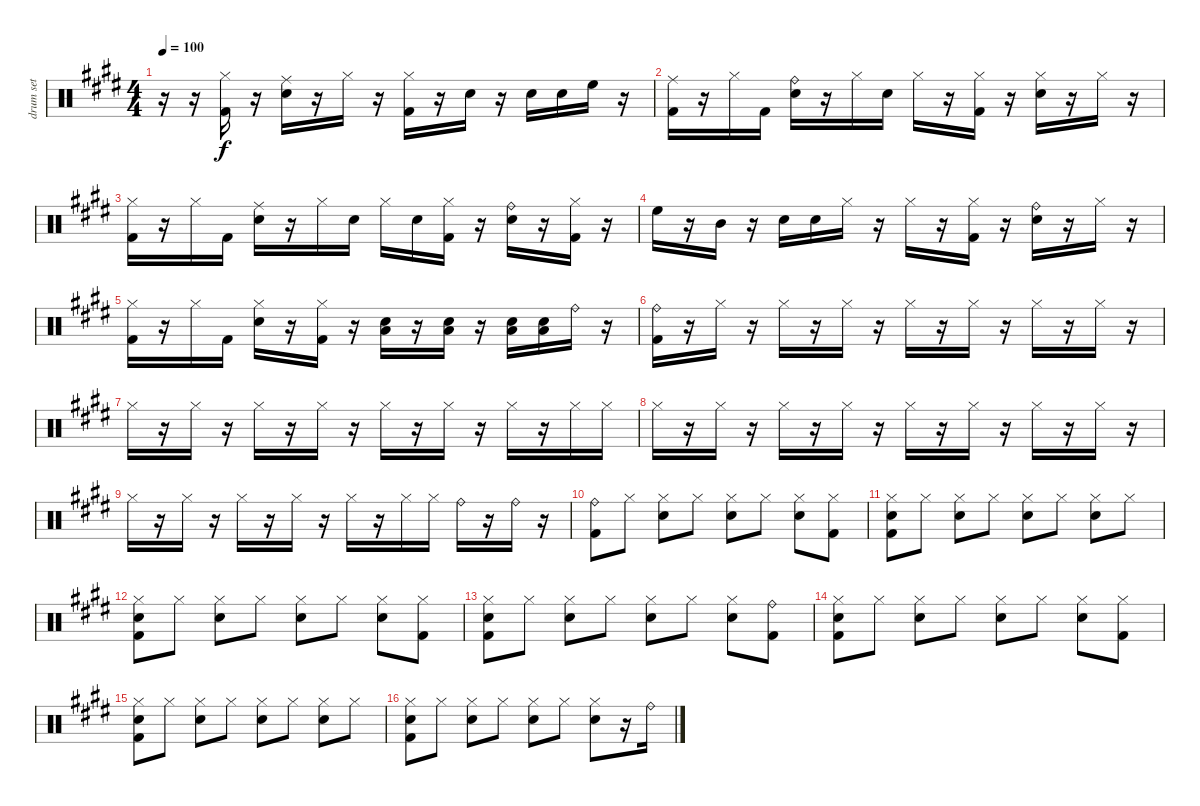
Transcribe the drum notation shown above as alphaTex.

\track ("drum set" "drum set") {instrument percussion}
\staff {score}
\articulation defaults
\ts (4 4)
\tempo 100
\clef neutral
\ks e
r.16{dy f} r.16 ("Hi-Hat (closed)" "Kick (hit) 2").16 r.16 ("Ride (middle)" "Snare (hit) 2").16 r.16 "Hi-Hat (closed)".16 r.16 ("Hi-Hat (closed)" "Kick (hit) 2").16 r.16 "Snare (hit) 2".16 r.16 "Snare (hit) 2".16 "Snare (hit) 2".16 "High Floor Tom (hit)".16 r.16 |
("Ride (middle)" "Kick (hit) 2").16 r.16 "Hi-Hat (closed)".16 "Kick (hit) 2".16 ("Ride (bell)" "Snare (hit) 2").16 r.16 "Hi-Hat (closed)".16 "Snare (hit) 2".16 "Hi-Hat (closed)".16 r.16 ("Hi-Hat (closed)" "Kick (hit) 2").16 r.16 ("Hi-Hat (closed)" "Snare (hit) 2").16 r.16 "Hi-Hat (closed)".16 r.16 |
("Hi-Hat (closed)" "Kick (hit) 2").16 r.16 "Hi-Hat (closed)".16 "Kick (hit) 2".16 ("Ride (middle)" "Snare (hit) 2").16 r.16 "Hi-Hat (closed)".16 "Snare (hit) 2".16 "Hi-Hat (closed)".16 "Snare (hit) 2".16 ("Hi-Hat (closed)" "Kick (hit) 2").16 r.16 ("Ride (bell)" "Snare (hit) 2").16 r.16 ("Hi-Hat (closed)" "Kick (hit) 2").16 r.16 |
"High Floor Tom (hit)".16 r.16 "Mid Tom (hit)".16 r.16 "Snare (hit) 2".16 "Snare (hit) 2".16 "Hi-Hat (closed)".16 r.16 "Hi-Hat (closed)".16 r.16 ("Hi-Hat (closed)" "Kick (hit) 2").16 r.16 ("Ride (bell)" "Snare (hit) 2").16 r.16 "Hi-Hat (closed)".16 r.16 |
("Hi-Hat (closed)" "Kick (hit) 2").16 r.16 "Hi-Hat (closed)".16 "Kick (hit) 2".16 ("Hi-Hat (closed)" "Snare (hit) 2").16 r.16 ("Hi-Hat (closed)" "Kick (hit) 2").16 r.16 ("Snare (hit) 2" "Low Tom (hit)").16 r.16 ("Snare (hit) 2" "Low Tom (hit)").16 r.16 ("Snare (hit) 2" "Low Tom (hit)").16 ("Snare (hit) 2" "Low Tom (hit)").16 "Ride (bell)".16 r.16 |
("Ride (bell)" "Kick (hit) 2").16 r.16 "Hi-Hat (closed)".16 r.16 "Hi-Hat (closed)".16 r.16 "Hi-Hat (closed)".16 r.16 "Hi-Hat (closed)".16 r.16 "Hi-Hat (closed)".16 r.16 "Hi-Hat (closed)".16 r.16 "Hi-Hat (closed)".16 r.16 |
"Hi-Hat (closed)".16 r.16 "Hi-Hat (closed)".16 r.16 "Hi-Hat (closed)".16 r.16 "Hi-Hat (closed)".16 r.16 "Hi-Hat (closed)".16 r.16 "Hi-Hat (closed)".16 r.16 "Hi-Hat (closed)".16 r.16 "Hi-Hat (closed)".16 "Hi-Hat (closed)".16 |
"Hi-Hat (closed)".16 r.16 "Hi-Hat (closed)".16 r.16 "Hi-Hat (closed)".16 r.16 "Hi-Hat (closed)".16 r.16 "Hi-Hat (closed)".16 r.16 "Hi-Hat (closed)".16 r.16 "Hi-Hat (closed)".16 r.16 "Hi-Hat (closed)".16 r.16 |
"Hi-Hat (closed)".16 r.16 "Hi-Hat (closed)".16 r.16 "Hi-Hat (closed)".16 r.16 "Hi-Hat (closed)".16 r.16 "Hi-Hat (closed)".16 r.16 "Hi-Hat (closed)".16 "Hi-Hat (closed)".16 "Ride (bell)".16 r.16 "Ride (bell)".16 r.16 |
("Ride (bell)" "Kick (hit) 2").8 "Hi-Hat (closed)".8 ("Hi-Hat (closed)" "Snare (hit) 2").8 "Hi-Hat (closed)".8 ("Hi-Hat (closed)" "Snare (hit) 2").8 "Hi-Hat (closed)".8 ("Hi-Hat (closed)" "Snare (hit) 2").8 ("Hi-Hat (closed)" "Kick (hit) 2").8 |
("Hi-Hat (closed)" "Kick (hit) 2" "Snare (hit) 2").8 "Hi-Hat (closed)".8 ("Hi-Hat (closed)" "Snare (hit) 2").8 "Hi-Hat (closed)".8 ("Hi-Hat (closed)" "Snare (hit) 2").8 "Hi-Hat (closed)".8 ("Hi-Hat (closed)" "Snare (hit) 2").8 "Hi-Hat (closed)".8 |
("Hi-Hat (closed)" "Kick (hit) 2" "Snare (hit) 2").8 "Hi-Hat (closed)".8 ("Hi-Hat (closed)" "Snare (hit) 2").8 "Hi-Hat (closed)".8 ("Hi-Hat (closed)" "Snare (hit) 2").8 "Hi-Hat (closed)".8 ("Hi-Hat (closed)" "Snare (hit) 2").8 ("Hi-Hat (closed)" "Kick (hit) 2").8 |
("Hi-Hat (closed)" "Snare (hit) 2" "Kick (hit) 2").8 "Hi-Hat (closed)".8 ("Hi-Hat (closed)" "Snare (hit) 2").8 "Hi-Hat (closed)".8 ("Hi-Hat (closed)" "Snare (hit) 2").8 "Hi-Hat (closed)".8 ("Hi-Hat (closed)" "Snare (hit) 2").8 ("Ride (bell)" "Kick (hit) 2").8 |
("Hi-Hat (closed)" "Kick (hit) 2" "Snare (hit) 2").8 "Hi-Hat (closed)".8 ("Hi-Hat (closed)" "Snare (hit) 2").8 "Hi-Hat (closed)".8 ("Hi-Hat (closed)" "Snare (hit) 2").8 "Hi-Hat (closed)".8 ("Hi-Hat (closed)" "Snare (hit) 2").8 ("Hi-Hat (closed)" "Kick (hit) 2").8 |
("Hi-Hat (closed)" "Snare (hit) 2" "Kick (hit) 2").8 "Hi-Hat (closed)".8 ("Hi-Hat (closed)" "Snare (hit) 2").8 "Hi-Hat (closed)".8 ("Hi-Hat (closed)" "Snare (hit) 2").8 "Hi-Hat (closed)".8 ("Hi-Hat (closed)" "Snare (hit) 2").8 "Hi-Hat (closed)".8 |
("Hi-Hat (closed)" "Snare (hit) 2" "Kick (hit) 2").8 "Hi-Hat (closed)".8 ("Hi-Hat (closed)" "Snare (hit) 2").8 "Hi-Hat (closed)".8 ("Hi-Hat (closed)" "Snare (hit) 2").8 "Hi-Hat (closed)".8 ("Hi-Hat (closed)" "Snare (hit) 2").8 r.16 "Ride (bell)".16
